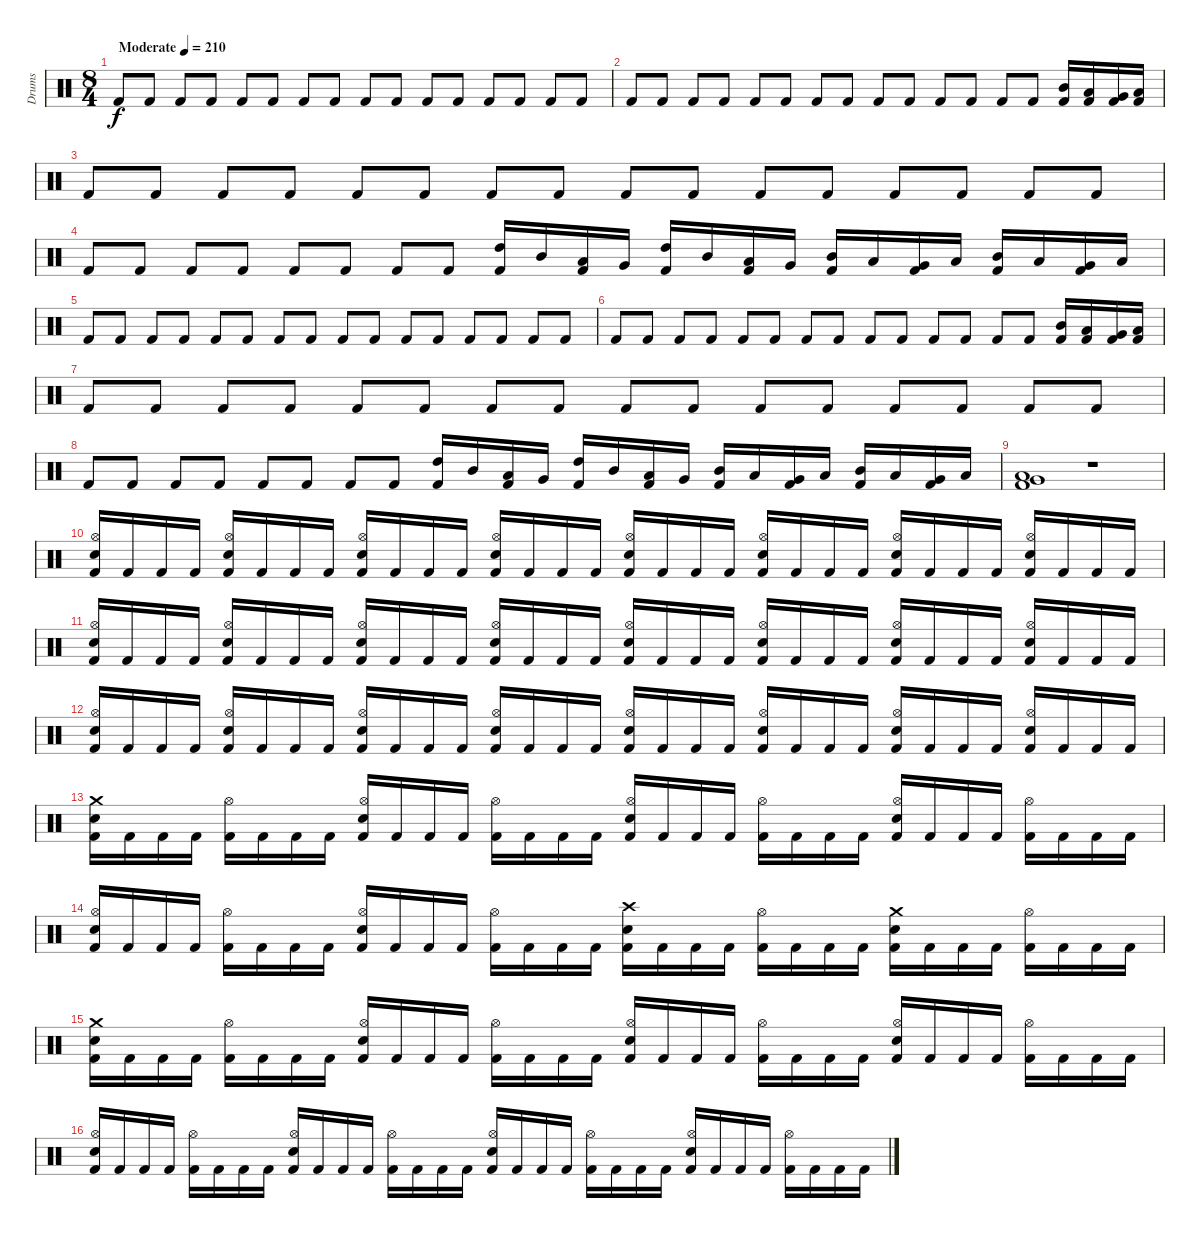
\track ("Drums" "Drums") {instrument percussion}
\staff {score}
\articulation defaults
\ts (8 4)
\tempo (210 "Moderate")
\clef neutral
\ks c "Kick (hit) 2".8{dy f} "Kick (hit) 2".8 "Kick (hit) 2".8 "Kick (hit) 2".8 "Kick (hit) 2".8 "Kick (hit) 2".8 "Kick (hit) 2".8 "Kick (hit) 2".8 "Kick (hit) 2".8 "Kick (hit) 2".8 "Kick (hit) 2".8 "Kick (hit) 2".8 "Kick (hit) 2".8 "Kick (hit) 2".8 "Kick (hit) 2".8 "Kick (hit) 2".8
|
"Kick (hit) 2".8 "Kick (hit) 2".8 "Kick (hit) 2".8 "Kick (hit) 2".8 "Kick (hit) 2".8 "Kick (hit) 2".8 "Kick (hit) 2".8 "Kick (hit) 2".8 "Kick (hit) 2".8 "Kick (hit) 2".8 "Kick (hit) 2".8 "Kick (hit) 2".8 "Kick (hit) 2".8 "Kick (hit) 2".8 ("Mid Tom (hit)" "Kick (hit) 2").16 ("Low Tom (hit)" "Kick (hit) 2").16 ("Very Low Tom (hit)" "Kick (hit) 2").16 ("Low Floor Tom (hit)" "Kick (hit) 2").16 |
"Kick (hit) 2".8 "Kick (hit) 2".8 "Kick (hit) 2".8 "Kick (hit) 2".8 "Kick (hit) 2".8 "Kick (hit) 2".8 "Kick (hit) 2".8 "Kick (hit) 2".8 "Kick (hit) 2".8 "Kick (hit) 2".8 "Kick (hit) 2".8 "Kick (hit) 2".8 "Kick (hit) 2".8 "Kick (hit) 2".8 "Kick (hit) 2".8 "Kick (hit) 2".8 |
"Kick (hit) 2".8 "Kick (hit) 2".8 "Kick (hit) 2".8 "Kick (hit) 2".8 "Kick (hit) 2".8 "Kick (hit) 2".8 "Kick (hit) 2".8 "Kick (hit) 2".8 ("High Tom (hit)" "Kick (hit) 2").16 "Mid Tom (hit)".16 ("Low Tom (hit)" "Kick (hit) 2").16 "Very Low Tom (hit)".16 ("High Tom (hit)" "Kick (hit) 2").16 "Mid Tom (hit)".16 ("Low Tom (hit)" "Kick (hit) 2").16 "Very Low Tom (hit)".16 ("Mid Tom (hit)" "Kick (hit) 2").16 "Low Tom (hit)".16 ("Very Low Tom (hit)" "Kick (hit) 2").16 "Low Floor Tom (hit)".16 ("Mid Tom (hit)" "Kick (hit) 2").16 "Low Tom (hit)".16 ("Very Low Tom (hit)" "Kick (hit) 2").16 "Low Floor Tom (hit)".16 |
"Kick (hit) 2".8 "Kick (hit) 2".8 "Kick (hit) 2".8 "Kick (hit) 2".8 "Kick (hit) 2".8 "Kick (hit) 2".8 "Kick (hit) 2".8 "Kick (hit) 2".8 "Kick (hit) 2".8 "Kick (hit) 2".8 "Kick (hit) 2".8 "Kick (hit) 2".8 "Kick (hit) 2".8 "Kick (hit) 2".8 "Kick (hit) 2".8 "Kick (hit) 2".8 |
"Kick (hit) 2".8 "Kick (hit) 2".8 "Kick (hit) 2".8 "Kick (hit) 2".8 "Kick (hit) 2".8 "Kick (hit) 2".8 "Kick (hit) 2".8 "Kick (hit) 2".8 "Kick (hit) 2".8 "Kick (hit) 2".8 "Kick (hit) 2".8 "Kick (hit) 2".8 "Kick (hit) 2".8 "Kick (hit) 2".8 ("Mid Tom (hit)" "Kick (hit) 2").16 ("Low Tom (hit)" "Kick (hit) 2").16 ("Very Low Tom (hit)" "Kick (hit) 2").16 ("Low Floor Tom (hit)" "Kick (hit) 2").16 |
"Kick (hit) 2".8 "Kick (hit) 2".8 "Kick (hit) 2".8 "Kick (hit) 2".8 "Kick (hit) 2".8 "Kick (hit) 2".8 "Kick (hit) 2".8 "Kick (hit) 2".8 "Kick (hit) 2".8 "Kick (hit) 2".8 "Kick (hit) 2".8 "Kick (hit) 2".8 "Kick (hit) 2".8 "Kick (hit) 2".8 "Kick (hit) 2".8 "Kick (hit) 2".8 |
"Kick (hit) 2".8 "Kick (hit) 2".8 "Kick (hit) 2".8 "Kick (hit) 2".8 "Kick (hit) 2".8 "Kick (hit) 2".8 "Kick (hit) 2".8 "Kick (hit) 2".8 ("High Tom (hit)" "Kick (hit) 2").16 "Mid Tom (hit)".16 ("Low Tom (hit)" "Kick (hit) 2").16 "Very Low Tom (hit)".16 ("High Tom (hit)" "Kick (hit) 2").16 "Mid Tom (hit)".16 ("Low Tom (hit)" "Kick (hit) 2").16 "Very Low Tom (hit)".16 ("Mid Tom (hit)" "Kick (hit) 2").16 "Low Tom (hit)".16 ("Very Low Tom (hit)" "Kick (hit) 2").16 "Low Floor Tom (hit)".16 ("Mid Tom (hit)" "Kick (hit) 2").16 "Low Tom (hit)".16 ("Very Low Tom (hit)" "Kick (hit) 2").16 "Low Floor Tom (hit)".16 |
("Low Tom (hit)" "Very Low Tom (hit)" "Kick (hit) 2").1 r.1 |
("Hi-Hat (open)" "Electric Snare (hit)" "Kick (hit) 2").16 "Kick (hit) 2".16 "Kick (hit) 2".16 "Kick (hit) 2".16 ("Hi-Hat (open)" "Electric Snare (hit)" "Kick (hit) 2").16 "Kick (hit) 2".16 "Kick (hit) 2".16 "Kick (hit) 2".16 ("Hi-Hat (open)" "Electric Snare (hit)" "Kick (hit) 2").16 "Kick (hit) 2".16 "Kick (hit) 2".16 "Kick (hit) 2".16 ("Hi-Hat (open)" "Electric Snare (hit)" "Kick (hit) 2").16 "Kick (hit) 2".16 "Kick (hit) 2".16 "Kick (hit) 2".16 ("Hi-Hat (open)" "Electric Snare (hit)" "Kick (hit) 2").16 "Kick (hit) 2".16 "Kick (hit) 2".16 "Kick (hit) 2".16 ("Hi-Hat (open)" "Electric Snare (hit)" "Kick (hit) 2").16 "Kick (hit) 2".16 "Kick (hit) 2".16 "Kick (hit) 2".16 ("Hi-Hat (open)" "Electric Snare (hit)" "Kick (hit) 2").16 "Kick (hit) 2".16 "Kick (hit) 2".16 "Kick (hit) 2".16 ("Hi-Hat (open)" "Electric Snare (hit)" "Kick (hit) 2").16 "Kick (hit) 2".16 "Kick (hit) 2".16 "Kick (hit) 2".16 |
("Hi-Hat (open)" "Electric Snare (hit)" "Kick (hit) 2").16 "Kick (hit) 2".16 "Kick (hit) 2".16 "Kick (hit) 2".16 ("Hi-Hat (open)" "Electric Snare (hit)" "Kick (hit) 2").16 "Kick (hit) 2".16 "Kick (hit) 2".16 "Kick (hit) 2".16 ("Hi-Hat (open)" "Electric Snare (hit)" "Kick (hit) 2").16 "Kick (hit) 2".16 "Kick (hit) 2".16 "Kick (hit) 2".16 ("Hi-Hat (open)" "Electric Snare (hit)" "Kick (hit) 2").16 "Kick (hit) 2".16 "Kick (hit) 2".16 "Kick (hit) 2".16 ("Hi-Hat (open)" "Electric Snare (hit)" "Kick (hit) 2").16 "Kick (hit) 2".16 "Kick (hit) 2".16 "Kick (hit) 2".16 ("Hi-Hat (open)" "Electric Snare (hit)" "Kick (hit) 2").16 "Kick (hit) 2".16 "Kick (hit) 2".16 "Kick (hit) 2".16 ("Hi-Hat (open)" "Electric Snare (hit)" "Kick (hit) 2").16 "Kick (hit) 2".16 "Kick (hit) 2".16 "Kick (hit) 2".16 ("Hi-Hat (open)" "Electric Snare (hit)" "Kick (hit) 2").16 "Kick (hit) 2".16 "Kick (hit) 2".16 "Kick (hit) 2".16 |
("Hi-Hat (open)" "Electric Snare (hit)" "Kick (hit) 2").16 "Kick (hit) 2".16 "Kick (hit) 2".16 "Kick (hit) 2".16 ("Hi-Hat (open)" "Electric Snare (hit)" "Kick (hit) 2").16 "Kick (hit) 2".16 "Kick (hit) 2".16 "Kick (hit) 2".16 ("Hi-Hat (open)" "Electric Snare (hit)" "Kick (hit) 2").16 "Kick (hit) 2".16 "Kick (hit) 2".16 "Kick (hit) 2".16 ("Hi-Hat (open)" "Electric Snare (hit)" "Kick (hit) 2").16 "Kick (hit) 2".16 "Kick (hit) 2".16 "Kick (hit) 2".16 ("Hi-Hat (open)" "Electric Snare (hit)" "Kick (hit) 2").16 "Kick (hit) 2".16 "Kick (hit) 2".16 "Kick (hit) 2".16 ("Hi-Hat (open)" "Electric Snare (hit)" "Kick (hit) 2").16 "Kick (hit) 2".16 "Kick (hit) 2".16 "Kick (hit) 2".16 ("Hi-Hat (open)" "Electric Snare (hit)" "Kick (hit) 2").16 "Kick (hit) 2".16 "Kick (hit) 2".16 "Kick (hit) 2".16 ("Hi-Hat (open)" "Electric Snare (hit)" "Kick (hit) 2").16 "Kick (hit) 2".16 "Kick (hit) 2".16 "Kick (hit) 2".16 |
("Crash medium (hit)" "Electric Snare (hit)" "Kick (hit) 2").16 "Kick (hit) 2".16 "Kick (hit) 2".16 "Kick (hit) 2".16 ("Hi-Hat (open)" "Kick (hit) 2").16 "Kick (hit) 2".16 "Kick (hit) 2".16 "Kick (hit) 2".16 ("Hi-Hat (open)" "Electric Snare (hit)" "Kick (hit) 2").16 "Kick (hit) 2".16 "Kick (hit) 2".16 "Kick (hit) 2".16 ("Hi-Hat (open)" "Kick (hit) 2").16 "Kick (hit) 2".16 "Kick (hit) 2".16 "Kick (hit) 2".16 ("Hi-Hat (open)" "Electric Snare (hit)" "Kick (hit) 2").16 "Kick (hit) 2".16 "Kick (hit) 2".16 "Kick (hit) 2".16 ("Hi-Hat (open)" "Kick (hit) 2").16 "Kick (hit) 2".16 "Kick (hit) 2".16 "Kick (hit) 2".16 ("Hi-Hat (open)" "Electric Snare (hit)" "Kick (hit) 2").16 "Kick (hit) 2".16 "Kick (hit) 2".16 "Kick (hit) 2".16 ("Hi-Hat (open)" "Kick (hit) 2").16 "Kick (hit) 2".16 "Kick (hit) 2".16 "Kick (hit) 2".16 |
("Hi-Hat (open)" "Electric Snare (hit)" "Kick (hit) 2").16 "Kick (hit) 2".16 "Kick (hit) 2".16 "Kick (hit) 2".16 ("Hi-Hat (open)" "Kick (hit) 2").16 "Kick (hit) 2".16 "Kick (hit) 2".16 "Kick (hit) 2".16 ("Hi-Hat (open)" "Electric Snare (hit)" "Kick (hit) 2").16 "Kick (hit) 2".16 "Kick (hit) 2".16 "Kick (hit) 2".16 ("Hi-Hat (open)" "Kick (hit) 2").16 "Kick (hit) 2".16 "Kick (hit) 2".16 "Kick (hit) 2".16 ("Crash high (hit)" "Electric Snare (hit)" "Kick (hit) 2").16 "Kick (hit) 2".16 "Kick (hit) 2".16 "Kick (hit) 2".16 ("Hi-Hat (open)" "Kick (hit) 2").16 "Kick (hit) 2".16 "Kick (hit) 2".16 "Kick (hit) 2".16 ("Crash medium (hit)" "Electric Snare (hit)" "Kick (hit) 2").16 "Kick (hit) 2".16 "Kick (hit) 2".16 "Kick (hit) 2".16 ("Hi-Hat (open)" "Kick (hit) 2").16 "Kick (hit) 2".16 "Kick (hit) 2".16 "Kick (hit) 2".16 |
("Crash medium (hit)" "Electric Snare (hit)" "Kick (hit) 2").16 "Kick (hit) 2".16 "Kick (hit) 2".16 "Kick (hit) 2".16 ("Hi-Hat (open)" "Kick (hit) 2").16 "Kick (hit) 2".16 "Kick (hit) 2".16 "Kick (hit) 2".16 ("Hi-Hat (open)" "Electric Snare (hit)" "Kick (hit) 2").16 "Kick (hit) 2".16 "Kick (hit) 2".16 "Kick (hit) 2".16 ("Hi-Hat (open)" "Kick (hit) 2").16 "Kick (hit) 2".16 "Kick (hit) 2".16 "Kick (hit) 2".16 ("Hi-Hat (open)" "Electric Snare (hit)" "Kick (hit) 2").16 "Kick (hit) 2".16 "Kick (hit) 2".16 "Kick (hit) 2".16 ("Hi-Hat (open)" "Kick (hit) 2").16 "Kick (hit) 2".16 "Kick (hit) 2".16 "Kick (hit) 2".16 ("Hi-Hat (open)" "Electric Snare (hit)" "Kick (hit) 2").16 "Kick (hit) 2".16 "Kick (hit) 2".16 "Kick (hit) 2".16 ("Hi-Hat (open)" "Kick (hit) 2").16 "Kick (hit) 2".16 "Kick (hit) 2".16 "Kick (hit) 2".16 |
("Hi-Hat (open)" "Electric Snare (hit)" "Kick (hit) 2").16 "Kick (hit) 2".16 "Kick (hit) 2".16 "Kick (hit) 2".16 ("Hi-Hat (open)" "Kick (hit) 2").16 "Kick (hit) 2".16 "Kick (hit) 2".16 "Kick (hit) 2".16 ("Hi-Hat (open)" "Electric Snare (hit)" "Kick (hit) 2").16 "Kick (hit) 2".16 "Kick (hit) 2".16 "Kick (hit) 2".16 ("Hi-Hat (open)" "Kick (hit) 2").16 "Kick (hit) 2".16 "Kick (hit) 2".16 "Kick (hit) 2".16 ("Hi-Hat (open)" "Electric Snare (hit)" "Kick (hit) 2").16 "Kick (hit) 2".16 "Kick (hit) 2".16 "Kick (hit) 2".16 ("Hi-Hat (open)" "Kick (hit) 2").16 "Kick (hit) 2".16 "Kick (hit) 2".16 "Kick (hit) 2".16 ("Hi-Hat (open)" "Electric Snare (hit)" "Kick (hit) 2").16 "Kick (hit) 2".16 "Kick (hit) 2".16 "Kick (hit) 2".16 ("Hi-Hat (open)" "Kick (hit) 2").16 "Kick (hit) 2".16 "Kick (hit) 2".16 "Kick (hit) 2".16
